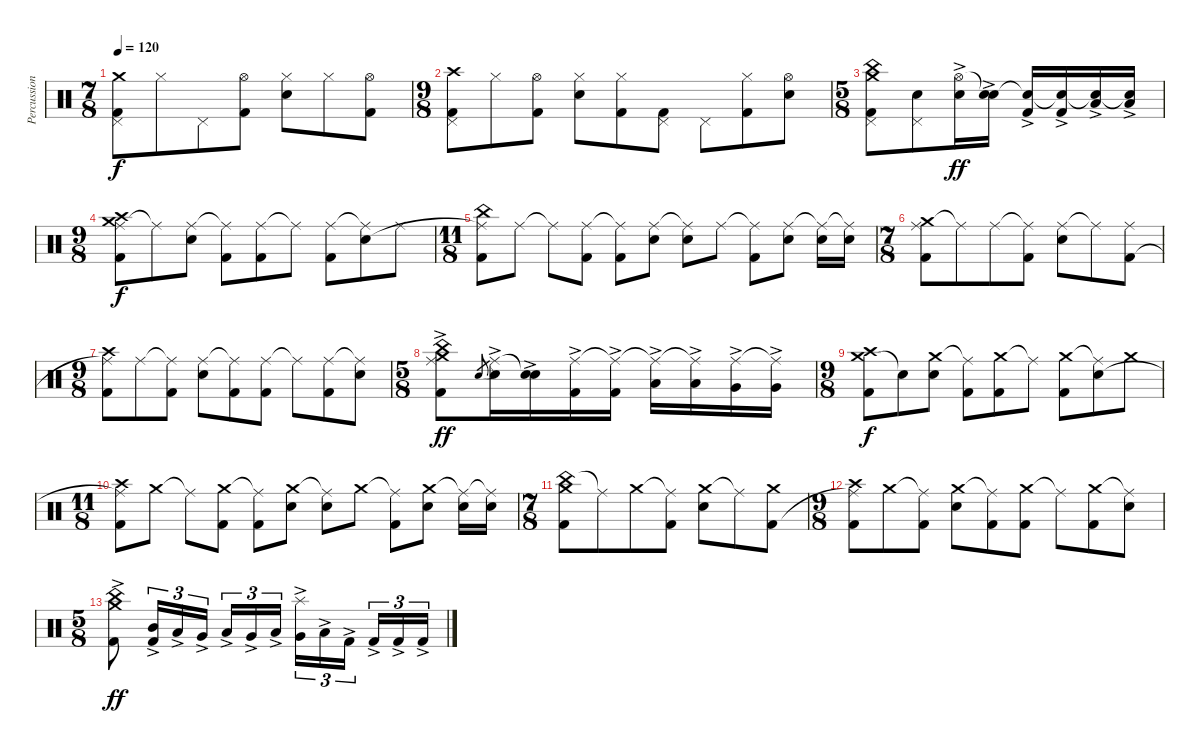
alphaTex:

\track ("Percussion" "Percussion") {instrument percussion}
\staff {score}
\articulation defaults
\ts (7 8)
\tempo 120
\clef neutral
\ks c
("Crash medium (hit)" "Pedal Hi-Hat (hit)" "Kick (hit) 2").8{dy f} "Hi-Hat (closed)".8 "Pedal Hi-Hat (hit)".8 ("Hi-Hat (open)" "Kick (hit) 2").8 ("Hi-Hat (closed)" "Electric Snare (hit)").8 "Hi-Hat (closed)".8 ("Hi-Hat (open)" "Kick (hit) 2").8 |
\ts (9 8)
("Crash high (hit)" "Pedal Hi-Hat (hit)" "Kick (hit) 2").8 "Hi-Hat (closed)".8 ("Hi-Hat (open)" "Kick (hit) 2").8 ("Hi-Hat (closed)" "Electric Snare (hit)").8 ("Hi-Hat (closed)" "Kick (hit) 2").8 ("Pedal Hi-Hat (hit)" "Kick (hit) 2").8 "Pedal Hi-Hat (hit)".8 ("Hi-Hat (closed)" "Kick (hit) 2").8 ("Hi-Hat (open)" "Electric Snare (hit)").8 |
\ts (5 8)
("China (hit)" "Pedal Hi-Hat (hit)" "Crash medium (hit)" "Kick (hit) 2").8 ("Pedal Hi-Hat (hit)" "Electric Snare (hit)").8 ("Hi-Hat (open)" "Electric Snare (hit)"{ac}).16{dy ff} ("Snare (hit)"{t} "Electric Snare (hit)"{ac}).16 ("Snare (hit)"{t} "Kick (hit) 2"{ac}).16 ("Snare (hit)"{t} "Kick (hit) 2"{ac}).16 ("Snare (hit)"{t} "Low Tom (hit)"{ac}).16 ("Snare (hit)"{t} "Low Tom (hit)"{ac}).16 |
\ts (9 8)
("Crash medium (hit)" "Ride (middle)" "Crash high (hit)" "Kick (hit) 2").8{dy f} "Ride (middle)"{t}.8 ("Ride (middle)" "Electric Snare (hit)").8 ("Ride (middle)"{t} "Kick (hit) 2").8 ("Ride (middle)" "Kick (hit) 2").8 "Ride (middle)"{t}.8 ("Ride (middle)" "Kick (hit) 2").8 ("Ride (middle)"{t} "Electric Snare (hit)").8 "Ride (middle)".8 |
\ts (11 8)
("China (hit)" "Ride (middle)"{t} "Kick (hit) 2").8 "Ride (middle)".8 "Ride (middle)"{t}.8 ("Ride (middle)" "Kick (hit) 2").8 ("Ride (middle)"{t} "Kick (hit) 2").8 ("Ride (middle)" "Electric Snare (hit)").8 ("Ride (middle)"{t} "Electric Snare (hit)").8 "Ride (middle)".8 ("Ride (middle)"{t} "Kick (hit) 2").8 ("Ride (middle)" "Electric Snare (hit)").8 ("Ride (middle)"{t} "Electric Snare (hit)").16 ("Ride (middle)"{t} "Electric Snare (hit)").16 |
\ts (7 8)
("Crash medium (hit)" "Ride (middle)" "Kick (hit) 2").8 "Ride (middle)"{t}.8 "Ride (middle)".8 ("Ride (middle)"{t} "Kick (hit) 2").8 ("Ride (middle)" "Electric Snare (hit)").8 "Ride (middle)"{t}.8 ("Ride (middle)" "Kick (hit) 2").8 |
\ts (9 8)
("Crash high (hit)" "Ride (middle)"{t} "Kick (hit) 2").8 "Ride (middle)".8 ("Ride (middle)"{t} "Kick (hit) 2").8 ("Ride (middle)" "Electric Snare (hit)").8 ("Ride (middle)"{t} "Kick (hit) 2").8 ("Ride (middle)" "Kick (hit) 2").8 "Ride (middle)"{t}.8 ("Ride (middle)" "Kick (hit) 2").8 ("Ride (middle)"{t} "Electric Snare (hit)").8 |
\ts (5 8)
("China (hit)" "Ride (middle)" "Crash medium (hit)" "Kick (hit) 2"{ac}).8{dy ff} "Electric Snare (hit)".8{gr} ("Ride (middle)"{t} "Electric Snare (hit)"{ac}).16 ("Snare (hit)"{t} "Electric Snare (hit)"{ac}).16 ("Ride (middle)" "Kick (hit) 2"{ac}).16 ("Ride (middle)"{t} "Kick (hit) 2"{ac}).16 ("Ride (middle)"{t} "Low Tom (hit)"{ac}).16 ("Ride (middle)"{t} "Low Tom (hit)"{ac}).16 ("Ride (middle)" "Very Low Tom (hit)"{ac}).16 ("Ride (middle)"{t} "Very Low Tom (hit)"{ac}).16 |
\ts (9 8)
("Crash medium (hit)" "Crash high (hit)" "Kick (hit) 2").8{dy f} "Snare (hit)"{t}.8 ("Crash medium (hit)" "Electric Snare (hit)").8 ("Ride (middle)"{t} "Kick (hit) 2").8 ("Crash medium (hit)" "Kick (hit) 2").8 "Ride (middle)"{t}.8 ("Crash medium (hit)" "Kick (hit) 2").8 ("Ride (middle)"{t} "Electric Snare (hit)").8 "Crash medium (hit)".8 |
\ts (11 8)
("Crash high (hit)" "Ride (middle)"{t} "Kick (hit) 2").8 "Crash medium (hit)".8 "Ride (middle)"{t}.8 ("Crash medium (hit)" "Kick (hit) 2").8 ("Ride (middle)"{t} "Kick (hit) 2").8 ("Crash medium (hit)" "Electric Snare (hit)").8 ("Ride (middle)"{t} "Electric Snare (hit)").8 "Crash medium (hit)".8 ("Ride (middle)"{t} "Kick (hit) 2").8 ("Crash medium (hit)" "Electric Snare (hit)").8 ("Ride (middle)"{t} "Electric Snare (hit)").16 ("Ride (middle)"{t} "Electric Snare (hit)").16 |
\ts (7 8)
("China (hit)" "Crash medium (hit)" "Kick (hit) 2").8 "Ride (middle)"{t}.8 "Crash medium (hit)".8 ("Ride (middle)"{t} "Kick (hit) 2").8 ("Crash medium (hit)" "Electric Snare (hit)").8 "Ride (middle)"{t}.8 ("Crash medium (hit)" "Kick (hit) 2").8 |
\ts (9 8)
("Crash high (hit)" "Ride (middle)"{t} "Kick (hit) 2").8 "Crash medium (hit)".8 ("Ride (middle)"{t} "Kick (hit) 2").8 ("Crash medium (hit)" "Electric Snare (hit)").8 ("Ride (middle)"{t} "Kick (hit) 2").8 ("Crash medium (hit)" "Kick (hit) 2").8 "Ride (middle)"{t}.8 ("Crash medium (hit)" "Kick (hit) 2").8 ("Ride (middle)"{t} "Electric Snare (hit)").8 |
\ts (5 8)
("China (hit)" "Crash medium (hit)" "Kick (hit) 2"{ac}).8{dy ff} ("Mid Tom (hit)"{ac} "Kick (hit) 2"{ac}).16{tu (3 2)} "Low Tom (hit)"{ac}.16{tu (3 2)} "Very Low Tom (hit)"{ac}.16{tu (3 2)} "Low Tom (hit)"{ac}.16{tu (3 2)} "Very Low Tom (hit)"{ac}.16{tu (3 2)} "Low Floor Tom (hit)"{ac}.16{tu (3 2)} ("Splash (hit)"{ac} "Very Low Tom (hit)"{ac}).16{tu (3 2)} "Low Floor Tom (hit)"{ac}.16{tu (3 2)} "Kick (hit) 2"{ac}.16{tu (3 2)} "Kick (hit) 2"{ac}.16{tu (3 2)} "Kick (hit) 2"{ac}.16{tu (3 2)} "Kick (hit) 2"{ac}.16{tu (3 2)}
